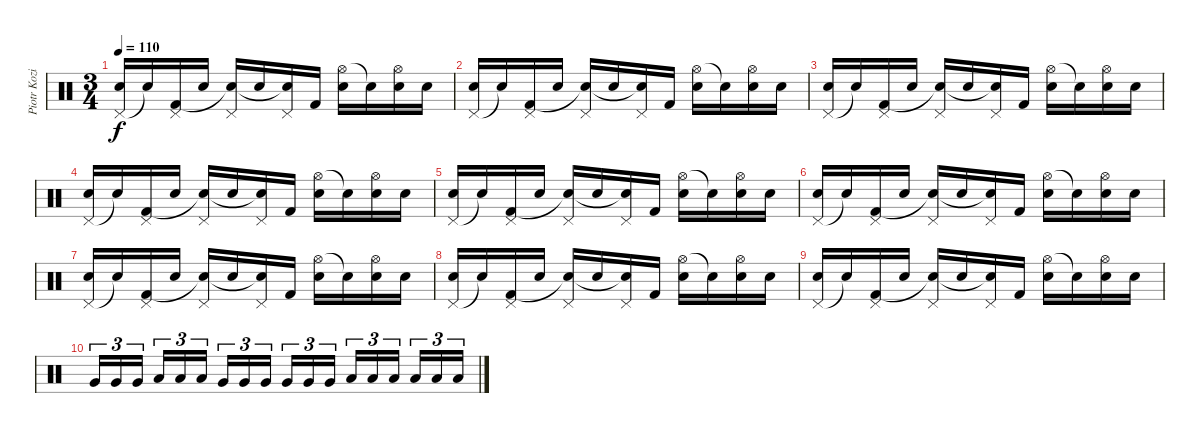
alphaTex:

\track ("Piotr Kozieradzki" "Piotr Kozi") {instrument percussion}
\staff {score}
\articulation defaults
\ts (3 4)
\tempo 110
\clef neutral
\ks c
("Pedal Hi-Hat (hit)" "Electric Snare (hit)").16{dy f} "Snare (hit)"{t}.16 ("Pedal Hi-Hat (hit)" "Kick (hit) 2").16 "Electric Snare (hit)".16 ("Pedal Hi-Hat (hit)" "Snare (hit)"{t}).16 "Electric Snare (hit)".16 ("Pedal Hi-Hat (hit)" "Snare (hit)"{t}).16 "Kick (hit) 2".16 ("Hi-Hat (open)" "Electric Snare (hit)").16 "Snare (hit)"{t}.16 ("Hi-Hat (open)" "Electric Snare (hit)").16 "Electric Snare (hit)".16 |
("Pedal Hi-Hat (hit)" "Electric Snare (hit)").16 "Snare (hit)"{t}.16 ("Pedal Hi-Hat (hit)" "Kick (hit) 2").16 "Electric Snare (hit)".16 ("Pedal Hi-Hat (hit)" "Snare (hit)"{t}).16 "Electric Snare (hit)".16 ("Pedal Hi-Hat (hit)" "Snare (hit)"{t}).16 "Kick (hit) 2".16 ("Hi-Hat (open)" "Electric Snare (hit)").16 "Snare (hit)"{t}.16 ("Hi-Hat (open)" "Electric Snare (hit)").16 "Electric Snare (hit)".16 |
("Pedal Hi-Hat (hit)" "Electric Snare (hit)").16 "Snare (hit)"{t}.16 ("Pedal Hi-Hat (hit)" "Kick (hit) 2").16 "Electric Snare (hit)".16 ("Pedal Hi-Hat (hit)" "Snare (hit)"{t}).16 "Electric Snare (hit)".16 ("Pedal Hi-Hat (hit)" "Snare (hit)"{t}).16 "Kick (hit) 2".16 ("Hi-Hat (open)" "Electric Snare (hit)").16 "Snare (hit)"{t}.16 ("Hi-Hat (open)" "Electric Snare (hit)").16 "Electric Snare (hit)".16 |
("Pedal Hi-Hat (hit)" "Electric Snare (hit)").16 "Snare (hit)"{t}.16 ("Pedal Hi-Hat (hit)" "Kick (hit) 2").16 "Electric Snare (hit)".16 ("Pedal Hi-Hat (hit)" "Snare (hit)"{t}).16 "Electric Snare (hit)".16 ("Pedal Hi-Hat (hit)" "Snare (hit)"{t}).16 "Kick (hit) 2".16 ("Hi-Hat (open)" "Electric Snare (hit)").16 "Snare (hit)"{t}.16 ("Hi-Hat (open)" "Electric Snare (hit)").16 "Electric Snare (hit)".16 |
("Pedal Hi-Hat (hit)" "Electric Snare (hit)").16 "Snare (hit)"{t}.16 ("Pedal Hi-Hat (hit)" "Kick (hit) 2").16 "Electric Snare (hit)".16 ("Pedal Hi-Hat (hit)" "Snare (hit)"{t}).16 "Electric Snare (hit)".16 ("Pedal Hi-Hat (hit)" "Snare (hit)"{t}).16 "Kick (hit) 2".16 ("Hi-Hat (open)" "Electric Snare (hit)").16 "Snare (hit)"{t}.16 ("Hi-Hat (open)" "Electric Snare (hit)").16 "Electric Snare (hit)".16 |
("Pedal Hi-Hat (hit)" "Electric Snare (hit)").16 "Snare (hit)"{t}.16 ("Pedal Hi-Hat (hit)" "Kick (hit) 2").16 "Electric Snare (hit)".16 ("Pedal Hi-Hat (hit)" "Snare (hit)"{t}).16 "Electric Snare (hit)".16 ("Pedal Hi-Hat (hit)" "Snare (hit)"{t}).16 "Kick (hit) 2".16 ("Hi-Hat (open)" "Electric Snare (hit)").16 "Snare (hit)"{t}.16 ("Hi-Hat (open)" "Electric Snare (hit)").16 "Electric Snare (hit)".16 |
("Pedal Hi-Hat (hit)" "Electric Snare (hit)").16 "Snare (hit)"{t}.16 ("Pedal Hi-Hat (hit)" "Kick (hit) 2").16 "Electric Snare (hit)".16 ("Pedal Hi-Hat (hit)" "Snare (hit)"{t}).16 "Electric Snare (hit)".16 ("Pedal Hi-Hat (hit)" "Snare (hit)"{t}).16 "Kick (hit) 2".16 ("Hi-Hat (open)" "Electric Snare (hit)").16 "Snare (hit)"{t}.16 ("Hi-Hat (open)" "Electric Snare (hit)").16 "Electric Snare (hit)".16 |
("Pedal Hi-Hat (hit)" "Electric Snare (hit)").16 "Snare (hit)"{t}.16 ("Pedal Hi-Hat (hit)" "Kick (hit) 2").16 "Electric Snare (hit)".16 ("Pedal Hi-Hat (hit)" "Snare (hit)"{t}).16 "Electric Snare (hit)".16 ("Pedal Hi-Hat (hit)" "Snare (hit)"{t}).16 "Kick (hit) 2".16 ("Hi-Hat (open)" "Electric Snare (hit)").16 "Snare (hit)"{t}.16 ("Hi-Hat (open)" "Electric Snare (hit)").16 "Electric Snare (hit)".16 |
("Pedal Hi-Hat (hit)" "Electric Snare (hit)").16 "Snare (hit)"{t}.16 ("Pedal Hi-Hat (hit)" "Kick (hit) 2").16 "Electric Snare (hit)".16 ("Pedal Hi-Hat (hit)" "Snare (hit)"{t}).16 "Electric Snare (hit)".16 ("Pedal Hi-Hat (hit)" "Snare (hit)"{t}).16 "Kick (hit) 2".16 ("Hi-Hat (open)" "Electric Snare (hit)").16 "Snare (hit)"{t}.16 ("Hi-Hat (open)" "Electric Snare (hit)").16 "Electric Snare (hit)".16 |
"Very Low Tom (hit)".16{tu (3 2)} "Very Low Tom (hit)".16{tu (3 2)} "Very Low Tom (hit)".16{tu (3 2) beam splitsecondary} "Low Tom (hit)".16{tu (3 2)} "Low Tom (hit)".16{tu (3 2)} "Low Tom (hit)".16{tu (3 2)} "Very Low Tom (hit)".16{tu (3 2)} "Very Low Tom (hit)".16{tu (3 2)} "Very Low Tom (hit)".16{tu (3 2) beam splitsecondary} "Very Low Tom (hit)".16{tu (3 2)} "Very Low Tom (hit)".16{tu (3 2)} "Very Low Tom (hit)".16{tu (3 2)} "Low Tom (hit)".16{tu (3 2)} "Low Tom (hit)".16{tu (3 2)} "Low Tom (hit)".16{tu (3 2) beam splitsecondary} "Low Tom (hit)".16{tu (3 2)} "Low Tom (hit)".16{tu (3 2)} "Low Tom (hit)".16{tu (3 2)}
